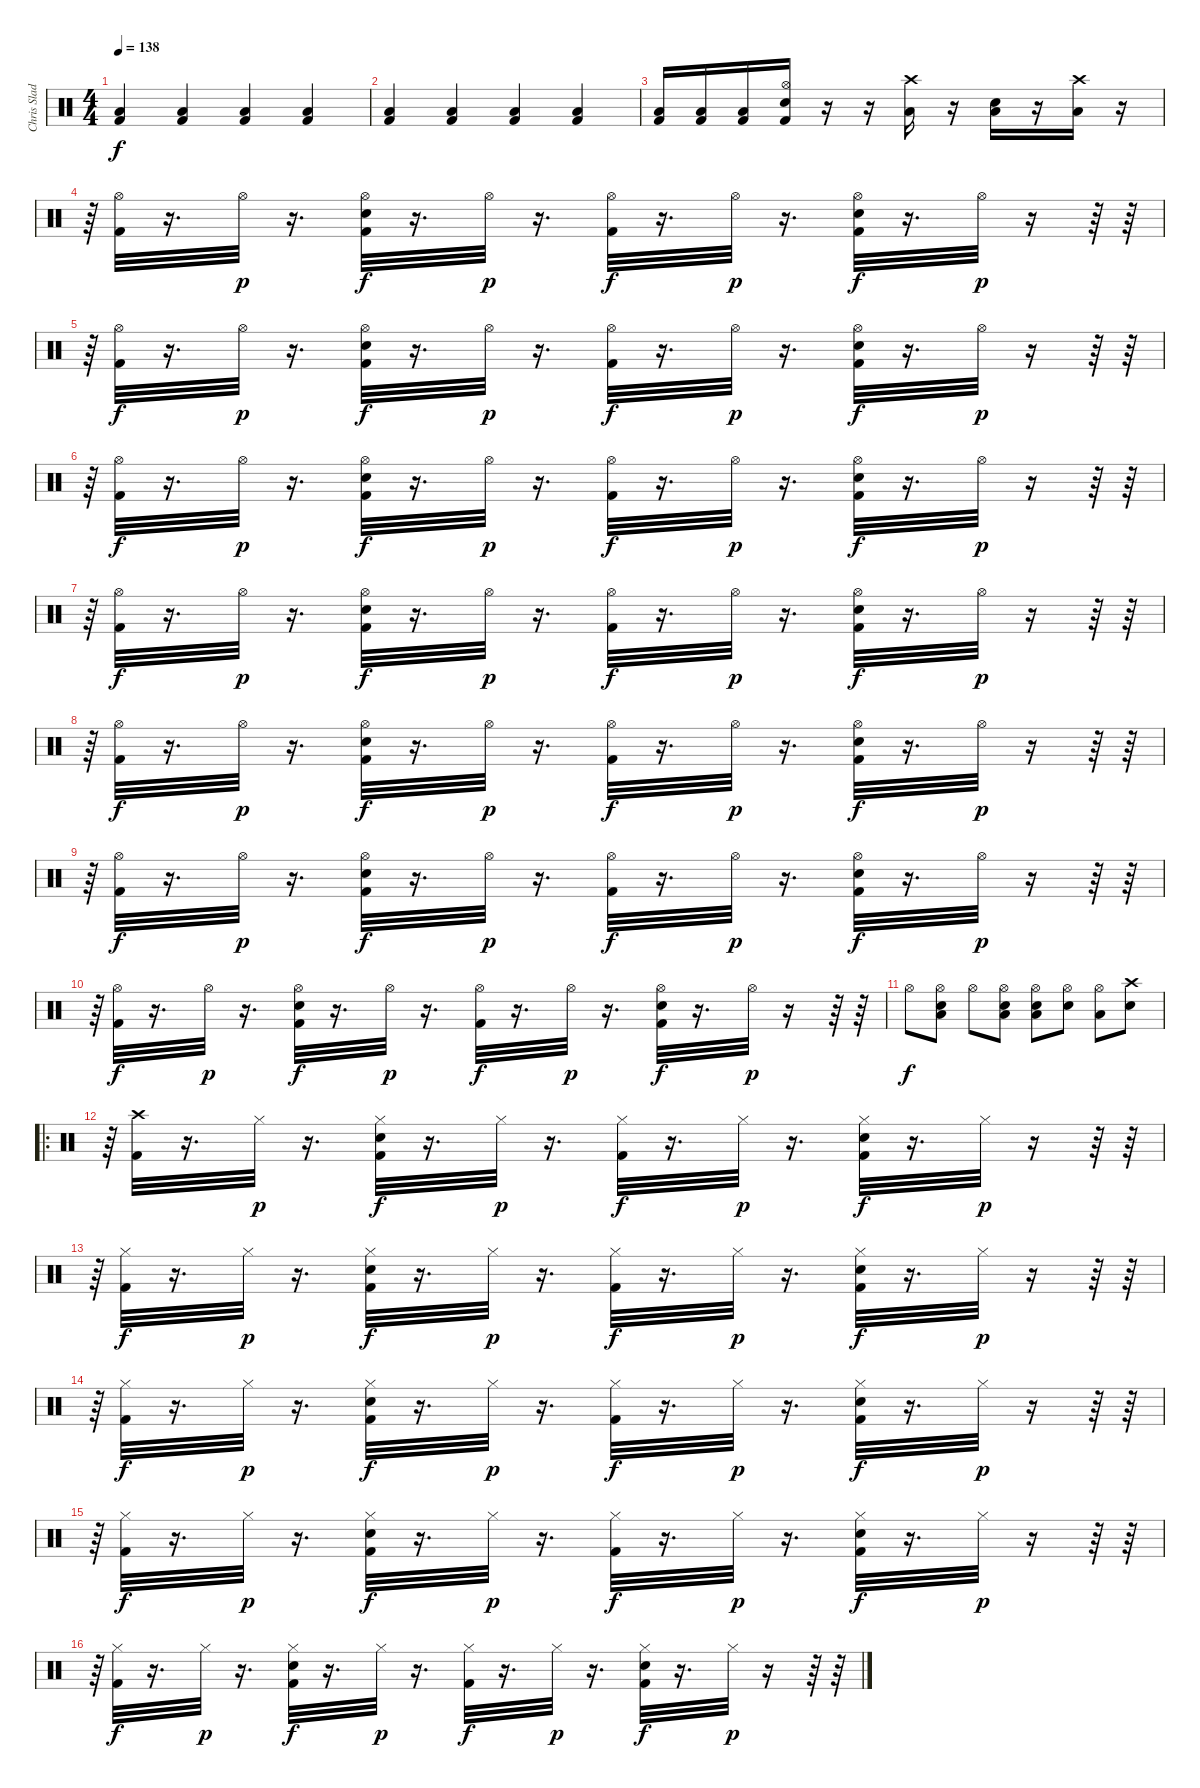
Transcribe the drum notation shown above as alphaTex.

\track ("Chris Slade" "Chris Slad") {instrument percussion}
\staff {score}
\articulation defaults
\ts (4 4)
\tempo 138
\clef neutral
\ks c
("Low Tom (hit)" "Kick (hit) 2").4{dy f} ("Low Tom (hit)" "Kick (hit) 2").4 ("Low Tom (hit)" "Kick (hit) 2").4 ("Low Tom (hit)" "Kick (hit) 2").4 |
("Low Tom (hit)" "Kick (hit) 2").4 ("Low Tom (hit)" "Kick (hit) 2").4 ("Low Tom (hit)" "Kick (hit) 2").4 ("Low Tom (hit)" "Kick (hit) 2").4 |
("Low Tom (hit)" "Kick (hit) 2").16 ("Low Tom (hit)" "Kick (hit) 2").16 ("Low Tom (hit)" "Kick (hit) 2").16 ("Hi-Hat (open)" "Kick (hit) 2" "Electric Snare (hit)").16 r.16 r.16 ("Crash high (hit)" "Low Tom (hit)").16 r.16 ("Low Tom (hit)" "Snare (hit) 2").16 r.16 ("Crash high (hit)" "Low Tom (hit)").16 r.16 |
r.64{tu (5 4)} ("Hi-Hat (open)" "Kick (hit) 2").32 r.16{d} "Hi-Hat (open)".32{dy p} r.16{d} ("Kick (hit) 2" "Hi-Hat (open)" "Electric Snare (hit)").32{dy f} r.16{d} "Hi-Hat (open)".32{dy p} r.16{d} ("Hi-Hat (open)" "Kick (hit) 2").32{dy f} r.16{d} "Hi-Hat (open)".32{dy p} r.16{d} ("Kick (hit) 2" "Hi-Hat (open)" "Electric Snare (hit)").32{dy f} r.16{d} "Hi-Hat (open)".32{dy p} r.16 r.64 r.64 |
r.64{tu (5 4)} ("Hi-Hat (open)" "Kick (hit) 2").32{dy f} r.16{d} "Hi-Hat (open)".32{dy p} r.16{d} ("Kick (hit) 2" "Hi-Hat (open)" "Electric Snare (hit)").32{dy f} r.16{d} "Hi-Hat (open)".32{dy p} r.16{d} ("Hi-Hat (open)" "Kick (hit) 2").32{dy f} r.16{d} "Hi-Hat (open)".32{dy p} r.16{d} ("Kick (hit) 2" "Hi-Hat (open)" "Electric Snare (hit)").32{dy f} r.16{d} "Hi-Hat (open)".32{dy p} r.16 r.64 r.64 |
r.64{tu (5 4)} ("Hi-Hat (open)" "Kick (hit) 2").32{dy f} r.16{d} "Hi-Hat (open)".32{dy p} r.16{d} ("Kick (hit) 2" "Hi-Hat (open)" "Electric Snare (hit)").32{dy f} r.16{d} "Hi-Hat (open)".32{dy p} r.16{d} ("Hi-Hat (open)" "Kick (hit) 2").32{dy f} r.16{d} "Hi-Hat (open)".32{dy p} r.16{d} ("Kick (hit) 2" "Hi-Hat (open)" "Electric Snare (hit)").32{dy f} r.16{d} "Hi-Hat (open)".32{dy p} r.16 r.64 r.64 |
r.64{tu (5 4)} ("Hi-Hat (open)" "Kick (hit) 2").32{dy f} r.16{d} "Hi-Hat (open)".32{dy p} r.16{d} ("Kick (hit) 2" "Hi-Hat (open)" "Electric Snare (hit)").32{dy f} r.16{d} "Hi-Hat (open)".32{dy p} r.16{d} ("Hi-Hat (open)" "Kick (hit) 2").32{dy f} r.16{d} "Hi-Hat (open)".32{dy p} r.16{d} ("Kick (hit) 2" "Hi-Hat (open)" "Electric Snare (hit)").32{dy f} r.16{d} "Hi-Hat (open)".32{dy p} r.16 r.64 r.64 |
r.64{tu (5 4)} ("Hi-Hat (open)" "Kick (hit) 2").32{dy f} r.16{d} "Hi-Hat (open)".32{dy p} r.16{d} ("Kick (hit) 2" "Hi-Hat (open)" "Electric Snare (hit)").32{dy f} r.16{d} "Hi-Hat (open)".32{dy p} r.16{d} ("Hi-Hat (open)" "Kick (hit) 2").32{dy f} r.16{d} "Hi-Hat (open)".32{dy p} r.16{d} ("Kick (hit) 2" "Hi-Hat (open)" "Electric Snare (hit)").32{dy f} r.16{d} "Hi-Hat (open)".32{dy p} r.16 r.64 r.64 |
r.64{tu (5 4)} ("Hi-Hat (open)" "Kick (hit) 2").32{dy f} r.16{d} "Hi-Hat (open)".32{dy p} r.16{d} ("Kick (hit) 2" "Hi-Hat (open)" "Electric Snare (hit)").32{dy f} r.16{d} "Hi-Hat (open)".32{dy p} r.16{d} ("Hi-Hat (open)" "Kick (hit) 2").32{dy f} r.16{d} "Hi-Hat (open)".32{dy p} r.16{d} ("Kick (hit) 2" "Hi-Hat (open)" "Electric Snare (hit)").32{dy f} r.16{d} "Hi-Hat (open)".32{dy p} r.16 r.64 r.64 |
r.64{tu (5 4)} ("Hi-Hat (open)" "Kick (hit) 2").32{dy f} r.16{d} "Hi-Hat (open)".32{dy p} r.16{d} ("Kick (hit) 2" "Hi-Hat (open)" "Electric Snare (hit)").32{dy f} r.16{d} "Hi-Hat (open)".32{dy p} r.16{d} ("Hi-Hat (open)" "Kick (hit) 2").32{dy f} r.16{d} "Hi-Hat (open)".32{dy p} r.16{d} ("Kick (hit) 2" "Hi-Hat (open)" "Electric Snare (hit)").32{dy f} r.16{d} "Hi-Hat (open)".32{dy p} r.16 r.64 r.64 |
"Hi-Hat (open)".8{dy f} ("Electric Snare (hit)" "Hi-Hat (open)" "Low Tom (hit)").8 "Hi-Hat (open)".8 ("Electric Snare (hit)" "Hi-Hat (open)" "Low Tom (hit)").8 ("Electric Snare (hit)" "Hi-Hat (open)" "Low Tom (hit)").8 ("Electric Snare (hit)" "Hi-Hat (open)").8 ("Hi-Hat (open)" "Low Tom (hit)").8 ("Electric Snare (hit)" "Crash high (hit)").8 |
\ro
r.64{tu (5 4)} ("Crash high (hit)" "Kick (hit) 2").32 r.16{d} "Hi-Hat (closed)".32{dy p} r.16{d} ("Kick (hit) 2" "Hi-Hat (closed)" "Electric Snare (hit)").32{dy f} r.16{d} "Hi-Hat (closed)".32{dy p} r.16{d} ("Hi-Hat (closed)" "Kick (hit) 2").32{dy f} r.16{d} "Hi-Hat (closed)".32{dy p} r.16{d} ("Kick (hit) 2" "Hi-Hat (closed)" "Electric Snare (hit)").32{dy f} r.16{d} "Hi-Hat (closed)".32{dy p} r.16 r.64 r.64 |
r.64{tu (5 4)} ("Hi-Hat (closed)" "Kick (hit) 2").32{dy f} r.16{d} "Hi-Hat (closed)".32{dy p} r.16{d} ("Kick (hit) 2" "Hi-Hat (closed)" "Electric Snare (hit)").32{dy f} r.16{d} "Hi-Hat (closed)".32{dy p} r.16{d} ("Hi-Hat (closed)" "Kick (hit) 2").32{dy f} r.16{d} "Hi-Hat (closed)".32{dy p} r.16{d} ("Kick (hit) 2" "Hi-Hat (closed)" "Electric Snare (hit)").32{dy f} r.16{d} "Hi-Hat (closed)".32{dy p} r.16 r.64 r.64 |
r.64{tu (5 4)} ("Hi-Hat (closed)" "Kick (hit) 2").32{dy f} r.16{d} "Hi-Hat (closed)".32{dy p} r.16{d} ("Kick (hit) 2" "Hi-Hat (closed)" "Electric Snare (hit)").32{dy f} r.16{d} "Hi-Hat (closed)".32{dy p} r.16{d} ("Hi-Hat (closed)" "Kick (hit) 2").32{dy f} r.16{d} "Hi-Hat (closed)".32{dy p} r.16{d} ("Kick (hit) 2" "Hi-Hat (closed)" "Electric Snare (hit)").32{dy f} r.16{d} "Hi-Hat (closed)".32{dy p} r.16 r.64 r.64 |
r.64{tu (5 4)} ("Hi-Hat (closed)" "Kick (hit) 2").32{dy f} r.16{d} "Hi-Hat (closed)".32{dy p} r.16{d} ("Kick (hit) 2" "Hi-Hat (closed)" "Electric Snare (hit)").32{dy f} r.16{d} "Hi-Hat (closed)".32{dy p} r.16{d} ("Hi-Hat (closed)" "Kick (hit) 2").32{dy f} r.16{d} "Hi-Hat (closed)".32{dy p} r.16{d} ("Kick (hit) 2" "Hi-Hat (closed)" "Electric Snare (hit)").32{dy f} r.16{d} "Hi-Hat (closed)".32{dy p} r.16 r.64 r.64 |
r.64{tu (5 4)} ("Hi-Hat (closed)" "Kick (hit) 2").32{dy f} r.16{d} "Hi-Hat (closed)".32{dy p} r.16{d} ("Kick (hit) 2" "Hi-Hat (closed)" "Electric Snare (hit)").32{dy f} r.16{d} "Hi-Hat (closed)".32{dy p} r.16{d} ("Hi-Hat (closed)" "Kick (hit) 2").32{dy f} r.16{d} "Hi-Hat (closed)".32{dy p} r.16{d} ("Kick (hit) 2" "Hi-Hat (closed)" "Electric Snare (hit)").32{dy f} r.16{d} "Hi-Hat (closed)".32{dy p} r.16 r.64 r.64
